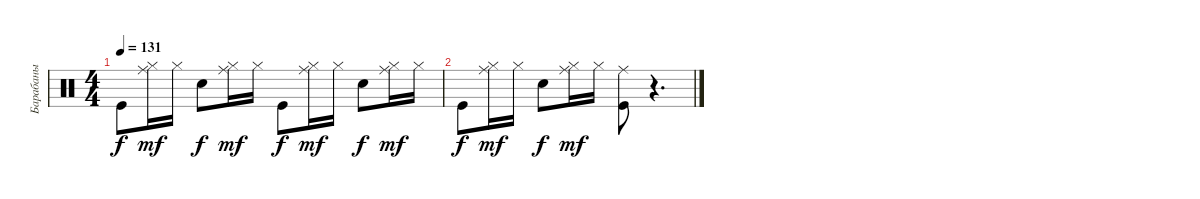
\track ("Барабаны" "Барабаны") {instrument percussion}
\staff {score}
\articulation defaults
\ts (4 4)
\tempo 131
\clef neutral
\ks c "Kick (hit)".8{dy f}
("Hi-Hat (closed)" "Ride (middle)").16{dy mf} "Hi-Hat (closed)".16 "Snare (hit) 2".8{dy f} ("Hi-Hat (closed)" "Ride (middle)").16{dy mf} "Hi-Hat (closed)".16 "Kick (hit)".8{dy f} ("Hi-Hat (closed)" "Ride (middle)").16{dy mf} "Hi-Hat (closed)".16 "Snare (hit) 2".8{dy f} ("Hi-Hat (closed)" "Ride (middle)").16{dy mf} "Hi-Hat (closed)".16 |
"Kick (hit)".8{dy f} ("Hi-Hat (closed)" "Ride (middle)").16{dy mf} "Hi-Hat (closed)".16 "Snare (hit) 2".8{dy f} ("Hi-Hat (closed)" "Ride (middle)").16{dy mf} "Hi-Hat (closed)".16 ("Kick (hit)" "Ride (middle)").8 r.4{d}
